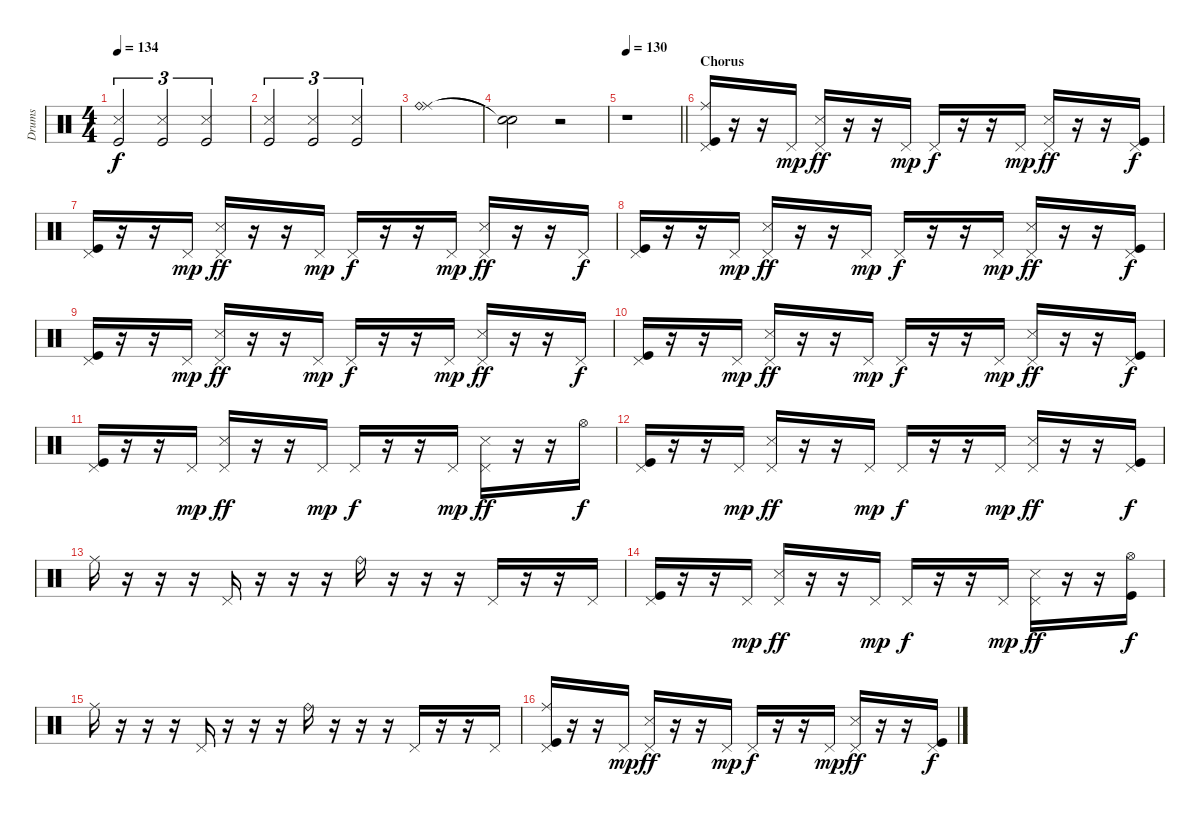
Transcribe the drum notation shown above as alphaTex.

\track ("Drums" "Drums") {instrument percussion}
\staff {score}
\articulation defaults
\ts (4 4)
\tempo 134
\clef neutral
\ks c
("Snare (side stick) 3" "Kick (hit)").2{tu (3 2) dy f} ("Snare (side stick) 3" "Kick (hit)").2{tu (3 2)} ("Snare (side stick) 3" "Kick (hit)").2{tu (3 2)} |
("Snare (side stick) 3" "Kick (hit)").2{tu (3 2)} ("Snare (side stick) 3" "Kick (hit)").2{tu (3 2)} ("Snare (side stick) 3" "Kick (hit)").2{tu (3 2)} |
("Ride (middle)" "Ride (bell)").1 |
("Snare (hit)"{t} "Snare (hit)"{t}).2 r.2 |
\tempo 130
\barLineRight lightlight
r.1 |
\section ("" "Chorus")
("Pedal Hi-Hat (hit)" "Ride (middle)" "Kick (hit)").16 r.16 r.16 "Pedal Hi-Hat (hit)".16{dy mp} ("Pedal Hi-Hat (hit)" "Snare (side stick) 3").16{dy ff} r.16 r.16 "Pedal Hi-Hat (hit)".16{dy mp} "Pedal Hi-Hat (hit)".16{dy f} r.16 r.16 "Pedal Hi-Hat (hit)".16{dy mp} ("Pedal Hi-Hat (hit)" "Snare (side stick) 3").16{dy ff} r.16 r.16 ("Pedal Hi-Hat (hit)" "Kick (hit)").16{dy f} |
("Pedal Hi-Hat (hit)" "Kick (hit)").16 r.16 r.16 "Pedal Hi-Hat (hit)".16{dy mp} ("Pedal Hi-Hat (hit)" "Snare (side stick) 3").16{dy ff} r.16 r.16 "Pedal Hi-Hat (hit)".16{dy mp} "Pedal Hi-Hat (hit)".16{dy f} r.16 r.16 "Pedal Hi-Hat (hit)".16{dy mp} ("Pedal Hi-Hat (hit)" "Snare (side stick) 3").16{dy ff} r.16 r.16 "Pedal Hi-Hat (hit)".16{dy f} |
("Pedal Hi-Hat (hit)" "Kick (hit)").16 r.16 r.16 "Pedal Hi-Hat (hit)".16{dy mp} ("Pedal Hi-Hat (hit)" "Snare (side stick) 3").16{dy ff} r.16 r.16 "Pedal Hi-Hat (hit)".16{dy mp} "Pedal Hi-Hat (hit)".16{dy f} r.16 r.16 "Pedal Hi-Hat (hit)".16{dy mp} ("Pedal Hi-Hat (hit)" "Snare (side stick) 3").16{dy ff} r.16 r.16 ("Pedal Hi-Hat (hit)" "Kick (hit)").16{dy f} |
("Pedal Hi-Hat (hit)" "Kick (hit)").16 r.16 r.16 "Pedal Hi-Hat (hit)".16{dy mp} ("Pedal Hi-Hat (hit)" "Snare (side stick) 3").16{dy ff} r.16 r.16 "Pedal Hi-Hat (hit)".16{dy mp} "Pedal Hi-Hat (hit)".16{dy f} r.16 r.16 "Pedal Hi-Hat (hit)".16{dy mp} ("Pedal Hi-Hat (hit)" "Snare (side stick) 3").16{dy ff} r.16 r.16 "Pedal Hi-Hat (hit)".16{dy f} |
("Pedal Hi-Hat (hit)" "Kick (hit)").16 r.16 r.16 "Pedal Hi-Hat (hit)".16{dy mp} ("Pedal Hi-Hat (hit)" "Snare (side stick) 3").16{dy ff} r.16 r.16 "Pedal Hi-Hat (hit)".16{dy mp} "Pedal Hi-Hat (hit)".16{dy f} r.16 r.16 "Pedal Hi-Hat (hit)".16{dy mp} ("Pedal Hi-Hat (hit)" "Snare (side stick) 3").16{dy ff} r.16 r.16 ("Pedal Hi-Hat (hit)" "Kick (hit)").16{dy f} |
("Pedal Hi-Hat (hit)" "Kick (hit)").16 r.16 r.16 "Pedal Hi-Hat (hit)".16{dy mp} ("Pedal Hi-Hat (hit)" "Snare (side stick) 3").16{dy ff} r.16 r.16 "Pedal Hi-Hat (hit)".16{dy mp} "Pedal Hi-Hat (hit)".16{dy f} r.16 r.16 "Pedal Hi-Hat (hit)".16{dy mp} ("Pedal Hi-Hat (hit)" "Snare (side stick) 3").16{dy ff} r.16 r.16 "Hi-Hat (open)".16{dy f} |
("Pedal Hi-Hat (hit)" "Kick (hit)").16 r.16 r.16 "Pedal Hi-Hat (hit)".16{dy mp} ("Pedal Hi-Hat (hit)" "Snare (side stick) 3").16{dy ff} r.16 r.16 "Pedal Hi-Hat (hit)".16{dy mp} "Pedal Hi-Hat (hit)".16{dy f} r.16 r.16 "Pedal Hi-Hat (hit)".16{dy mp} ("Pedal Hi-Hat (hit)" "Snare (side stick) 3").16{dy ff} r.16 r.16 ("Pedal Hi-Hat (hit)" "Kick (hit)").16{dy f} |
"Ride (middle)".16 r.16 r.16 r.16 "Pedal Hi-Hat (hit)".16 r.16 r.16 r.16 "Ride (bell)".16 r.16 r.16 r.16 "Pedal Hi-Hat (hit)".16 r.16 r.16 "Pedal Hi-Hat (hit)".16 |
("Pedal Hi-Hat (hit)" "Kick (hit)").16 r.16 r.16 "Pedal Hi-Hat (hit)".16{dy mp} ("Pedal Hi-Hat (hit)" "Snare (side stick) 3").16{dy ff} r.16 r.16 "Pedal Hi-Hat (hit)".16{dy mp} "Pedal Hi-Hat (hit)".16{dy f} r.16 r.16 "Pedal Hi-Hat (hit)".16{dy mp} ("Pedal Hi-Hat (hit)" "Snare (side stick) 3").16{dy ff} r.16 r.16 ("Hi-Hat (open)" "Kick (hit)").16{dy f} |
"Ride (middle)".16 r.16 r.16 r.16 "Pedal Hi-Hat (hit)".16 r.16 r.16 r.16 "Ride (bell)".16 r.16 r.16 r.16 "Pedal Hi-Hat (hit)".16 r.16 r.16 "Pedal Hi-Hat (hit)".16 |
("Pedal Hi-Hat (hit)" "Ride (middle)" "Kick (hit)").16 r.16 r.16 "Pedal Hi-Hat (hit)".16{dy mp} ("Pedal Hi-Hat (hit)" "Snare (side stick) 3").16{dy ff} r.16 r.16 "Pedal Hi-Hat (hit)".16{dy mp} "Pedal Hi-Hat (hit)".16{dy f} r.16 r.16 "Pedal Hi-Hat (hit)".16{dy mp} ("Pedal Hi-Hat (hit)" "Snare (side stick) 3").16{dy ff} r.16 r.16 ("Pedal Hi-Hat (hit)" "Kick (hit)").16{dy f}
